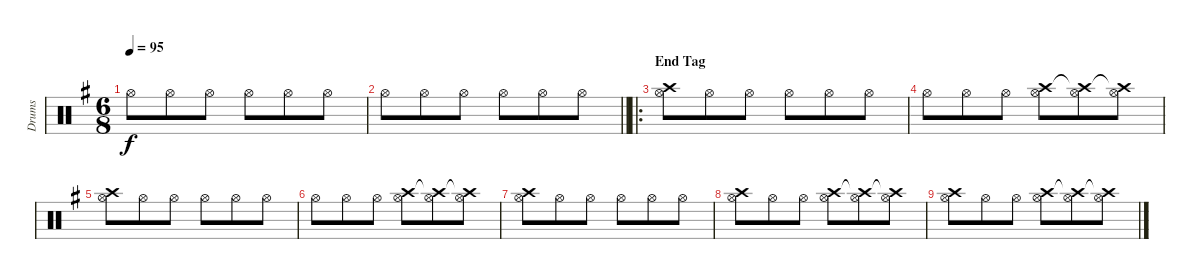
\track ("Drums" "Drums") {instrument percussion}
\staff {score}
\articulation defaults
\ts (6 8)
\tempo 95
\clef neutral
\ks g "Hi-Hat (open)".8{dy f} "Hi-Hat (open)".8 "Hi-Hat (open)".8 "Hi-Hat (open)".8 "Hi-Hat (open)".8 "Hi-Hat (open)".8
|
\barLineRight lightlight "Hi-Hat (open)".8 "Hi-Hat (open)".8 "Hi-Hat (open)".8 "Hi-Hat (open)".8 "Hi-Hat (open)".8 "Hi-Hat (open)".8
|
\ro
\section ("" "End Tag")
("Hi-Hat (open)" "Crash high (hit)").8 "Hi-Hat (open)".8 "Hi-Hat (open)".8 "Hi-Hat (open)".8 "Hi-Hat (open)".8 "Hi-Hat (open)".8 |
"Hi-Hat (open)".8 "Hi-Hat (open)".8 "Hi-Hat (open)".8 ("Hi-Hat (open)" "Crash high (hit)").8 ("Hi-Hat (open)" "Crash high (hit)"{t}).8 ("Hi-Hat (open)" "Crash high (hit)"{t}).8 |
("Hi-Hat (open)" "Crash high (hit)").8 "Hi-Hat (open)".8 "Hi-Hat (open)".8 "Hi-Hat (open)".8 "Hi-Hat (open)".8 "Hi-Hat (open)".8 |
"Hi-Hat (open)".8 "Hi-Hat (open)".8 "Hi-Hat (open)".8 ("Hi-Hat (open)" "Crash high (hit)").8 ("Hi-Hat (open)" "Crash high (hit)"{t}).8 ("Hi-Hat (open)" "Crash high (hit)"{t}).8 |
("Hi-Hat (open)" "Crash high (hit)").8 "Hi-Hat (open)".8 "Hi-Hat (open)".8 "Hi-Hat (open)".8 "Hi-Hat (open)".8 "Hi-Hat (open)".8 |
("Hi-Hat (open)" "Crash high (hit)").8 "Hi-Hat (open)".8 "Hi-Hat (open)".8 ("Hi-Hat (open)" "Crash high (hit)").8 ("Hi-Hat (open)" "Crash high (hit)"{t}).8 ("Hi-Hat (open)" "Crash high (hit)"{t}).8 |
("Hi-Hat (open)" "Crash high (hit)").8 "Hi-Hat (open)".8 "Hi-Hat (open)".8 ("Hi-Hat (open)" "Crash high (hit)").8 ("Hi-Hat (open)" "Crash high (hit)"{t}).8 ("Hi-Hat (open)" "Crash high (hit)"{t}).8
